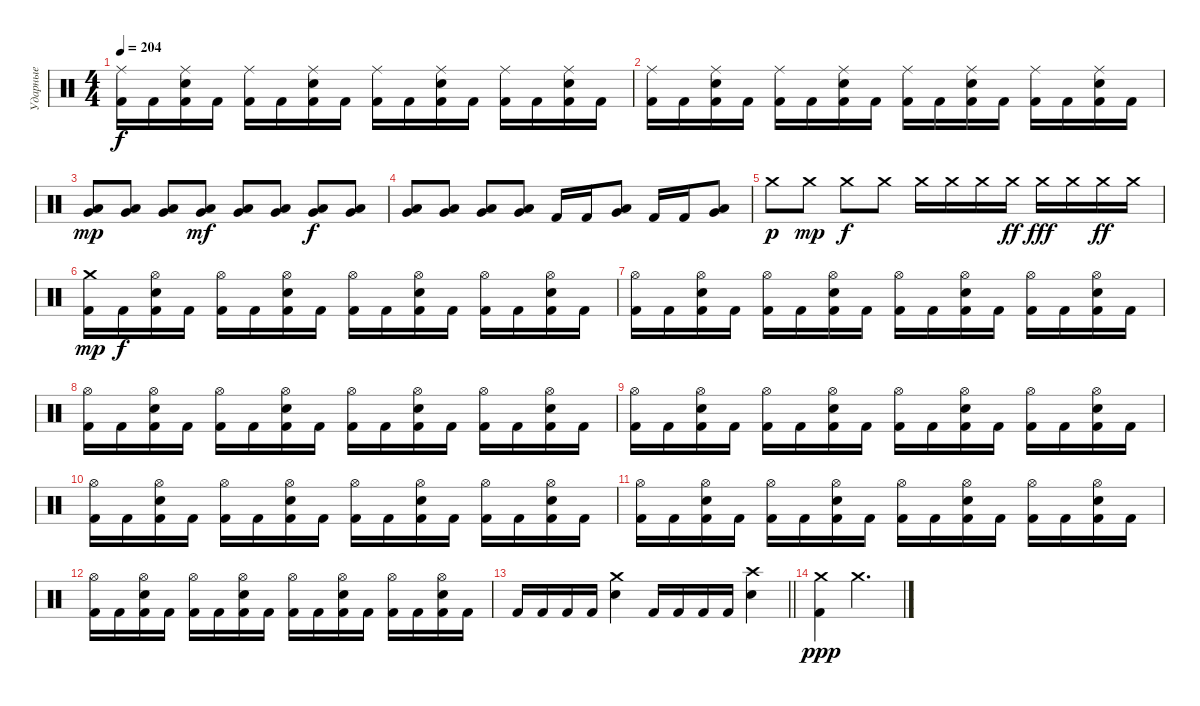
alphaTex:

\track ("Ударные" "Ударные") {instrument percussion}
\staff {score}
\articulation defaults
\ts (4 4)
\tempo 204
\clef neutral
\ks c
("Ride (middle)" "Kick (hit) 2").16{dy f} "Kick (hit) 2".16 ("Ride (middle)" "Snare (hit) 2" "Kick (hit) 2").16 "Kick (hit) 2".16 ("Ride (middle)" "Kick (hit) 2").16 "Kick (hit) 2".16 ("Ride (middle)" "Snare (hit) 2" "Kick (hit) 2").16 "Kick (hit) 2".16 ("Ride (middle)" "Kick (hit) 2").16 "Kick (hit) 2".16 ("Ride (middle)" "Snare (hit) 2" "Kick (hit) 2").16 "Kick (hit) 2".16 ("Ride (middle)" "Kick (hit) 2").16 "Kick (hit) 2".16 ("Ride (middle)" "Snare (hit) 2" "Kick (hit) 2").16 "Kick (hit) 2".16 |
("Ride (middle)" "Kick (hit) 2").16 "Kick (hit) 2".16 ("Ride (middle)" "Snare (hit) 2" "Kick (hit) 2").16 "Kick (hit) 2".16 ("Ride (middle)" "Kick (hit) 2").16 "Kick (hit) 2".16 ("Ride (middle)" "Snare (hit) 2" "Kick (hit) 2").16 "Kick (hit) 2".16 ("Ride (middle)" "Kick (hit) 2").16 "Kick (hit) 2".16 ("Ride (middle)" "Snare (hit) 2" "Kick (hit) 2").16 "Kick (hit) 2".16 ("Ride (middle)" "Kick (hit) 2").16 "Kick (hit) 2".16 ("Ride (middle)" "Snare (hit) 2" "Kick (hit) 2").16 "Kick (hit) 2".16 |
("Low Tom (hit)" "Very Low Tom (hit)").8{dy mp} ("Low Tom (hit)" "Very Low Tom (hit)").8 ("Low Tom (hit)" "Very Low Tom (hit)").8 ("Low Tom (hit)" "Very Low Tom (hit)").8{dy mf} ("Low Tom (hit)" "Very Low Tom (hit)").8 ("Low Tom (hit)" "Very Low Tom (hit)").8 ("Low Tom (hit)" "Very Low Tom (hit)").8{dy f} ("Low Tom (hit)" "Very Low Tom (hit)").8 |
("Low Tom (hit)" "Very Low Tom (hit)").8 ("Low Tom (hit)" "Very Low Tom (hit)").8 ("Low Tom (hit)" "Very Low Tom (hit)").8 ("Low Tom (hit)" "Very Low Tom (hit)").8 "Kick (hit) 2".16 "Kick (hit) 2".16 ("Low Tom (hit)" "Very Low Tom (hit)").8 "Kick (hit) 2".16 "Kick (hit) 2".16 ("Low Tom (hit)" "Very Low Tom (hit)").8 |
"Crash medium (hit)".8{dy p} "Crash medium (hit)".8{dy mp} "Crash medium (hit)".8{dy f} "Crash medium (hit)".8 "Crash medium (hit)".16 "Crash medium (hit)".16 "Crash medium (hit)".16 "Crash medium (hit)".16{dy ff} "Crash medium (hit)".16{dy fff} "Crash medium (hit)".16 "Crash medium (hit)".16{dy ff} "Crash medium (hit)".16 |
("Crash medium (hit)" "Kick (hit) 2").16{dy mp} "Kick (hit) 2".16{dy f} ("Hi-Hat (open)" "Snare (hit) 2" "Kick (hit) 2").16 "Kick (hit) 2".16 ("Hi-Hat (open)" "Kick (hit) 2").16 "Kick (hit) 2".16 ("Hi-Hat (open)" "Snare (hit) 2" "Kick (hit) 2").16 "Kick (hit) 2".16 ("Hi-Hat (open)" "Kick (hit) 2").16 "Kick (hit) 2".16 ("Hi-Hat (open)" "Snare (hit) 2" "Kick (hit) 2").16 "Kick (hit) 2".16 ("Hi-Hat (open)" "Kick (hit) 2").16 "Kick (hit) 2".16 ("Hi-Hat (open)" "Snare (hit) 2" "Kick (hit) 2").16 "Kick (hit) 2".16 |
("Hi-Hat (open)" "Kick (hit) 2").16 "Kick (hit) 2".16 ("Hi-Hat (open)" "Snare (hit) 2" "Kick (hit) 2").16 "Kick (hit) 2".16 ("Hi-Hat (open)" "Kick (hit) 2").16 "Kick (hit) 2".16 ("Hi-Hat (open)" "Snare (hit) 2" "Kick (hit) 2").16 "Kick (hit) 2".16 ("Hi-Hat (open)" "Kick (hit) 2").16 "Kick (hit) 2".16 ("Hi-Hat (open)" "Snare (hit) 2" "Kick (hit) 2").16 "Kick (hit) 2".16 ("Hi-Hat (open)" "Kick (hit) 2").16 "Kick (hit) 2".16 ("Hi-Hat (open)" "Snare (hit) 2" "Kick (hit) 2").16 "Kick (hit) 2".16 |
("Hi-Hat (open)" "Kick (hit) 2").16 "Kick (hit) 2".16 ("Hi-Hat (open)" "Snare (hit) 2" "Kick (hit) 2").16 "Kick (hit) 2".16 ("Hi-Hat (open)" "Kick (hit) 2").16 "Kick (hit) 2".16 ("Hi-Hat (open)" "Snare (hit) 2" "Kick (hit) 2").16 "Kick (hit) 2".16 ("Hi-Hat (open)" "Kick (hit) 2").16 "Kick (hit) 2".16 ("Hi-Hat (open)" "Snare (hit) 2" "Kick (hit) 2").16 "Kick (hit) 2".16 ("Hi-Hat (open)" "Kick (hit) 2").16 "Kick (hit) 2".16 ("Hi-Hat (open)" "Snare (hit) 2" "Kick (hit) 2").16 "Kick (hit) 2".16 |
("Hi-Hat (open)" "Kick (hit) 2").16 "Kick (hit) 2".16 ("Hi-Hat (open)" "Snare (hit) 2" "Kick (hit) 2").16 "Kick (hit) 2".16 ("Hi-Hat (open)" "Kick (hit) 2").16 "Kick (hit) 2".16 ("Hi-Hat (open)" "Snare (hit) 2" "Kick (hit) 2").16 "Kick (hit) 2".16 ("Hi-Hat (open)" "Kick (hit) 2").16 "Kick (hit) 2".16 ("Hi-Hat (open)" "Snare (hit) 2" "Kick (hit) 2").16 "Kick (hit) 2".16 ("Hi-Hat (open)" "Kick (hit) 2").16 "Kick (hit) 2".16 ("Hi-Hat (open)" "Snare (hit) 2" "Kick (hit) 2").16 "Kick (hit) 2".16 |
("Hi-Hat (open)" "Kick (hit) 2").16 "Kick (hit) 2".16 ("Hi-Hat (open)" "Snare (hit) 2" "Kick (hit) 2").16 "Kick (hit) 2".16 ("Hi-Hat (open)" "Kick (hit) 2").16 "Kick (hit) 2".16 ("Hi-Hat (open)" "Snare (hit) 2" "Kick (hit) 2").16 "Kick (hit) 2".16 ("Hi-Hat (open)" "Kick (hit) 2").16 "Kick (hit) 2".16 ("Hi-Hat (open)" "Snare (hit) 2" "Kick (hit) 2").16 "Kick (hit) 2".16 ("Hi-Hat (open)" "Kick (hit) 2").16 "Kick (hit) 2".16 ("Hi-Hat (open)" "Snare (hit) 2" "Kick (hit) 2").16 "Kick (hit) 2".16 |
("Hi-Hat (open)" "Kick (hit) 2").16 "Kick (hit) 2".16 ("Hi-Hat (open)" "Snare (hit) 2" "Kick (hit) 2").16 "Kick (hit) 2".16 ("Hi-Hat (open)" "Kick (hit) 2").16 "Kick (hit) 2".16 ("Hi-Hat (open)" "Snare (hit) 2" "Kick (hit) 2").16 "Kick (hit) 2".16 ("Hi-Hat (open)" "Kick (hit) 2").16 "Kick (hit) 2".16 ("Hi-Hat (open)" "Snare (hit) 2" "Kick (hit) 2").16 "Kick (hit) 2".16 ("Hi-Hat (open)" "Kick (hit) 2").16 "Kick (hit) 2".16 ("Hi-Hat (open)" "Snare (hit) 2" "Kick (hit) 2").16 "Kick (hit) 2".16 |
("Hi-Hat (open)" "Kick (hit) 2").16 "Kick (hit) 2".16 ("Hi-Hat (open)" "Snare (hit) 2" "Kick (hit) 2").16 "Kick (hit) 2".16 ("Hi-Hat (open)" "Kick (hit) 2").16 "Kick (hit) 2".16 ("Hi-Hat (open)" "Snare (hit) 2" "Kick (hit) 2").16 "Kick (hit) 2".16 ("Hi-Hat (open)" "Kick (hit) 2").16 "Kick (hit) 2".16 ("Hi-Hat (open)" "Snare (hit) 2" "Kick (hit) 2").16 "Kick (hit) 2".16 ("Hi-Hat (open)" "Kick (hit) 2").16 "Kick (hit) 2".16 ("Hi-Hat (open)" "Snare (hit) 2" "Kick (hit) 2").16 "Kick (hit) 2".16 |
\barLineRight lightlight "Kick (hit) 2".16 "Kick (hit) 2".16 "Kick (hit) 2".16 "Kick (hit) 2".16
("Crash medium (hit)" "Snare (hit) 2").4 "Kick (hit) 2".16 "Kick (hit) 2".16 "Kick (hit) 2".16 "Kick (hit) 2".16 ("Crash high (hit)" "Snare (hit) 2").4 |
("Crash medium (hit)" "Kick (hit) 2").4{dy ppp} "Crash medium (hit)".2{d}
